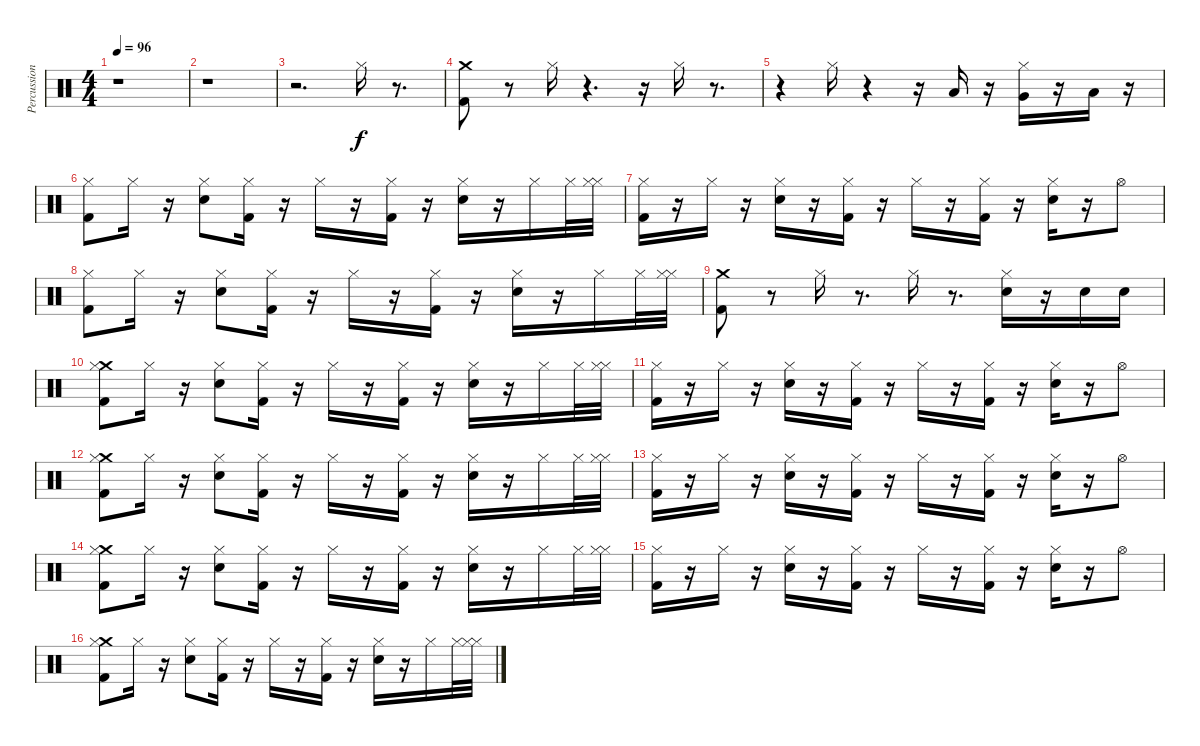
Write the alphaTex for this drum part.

\track ("Percussions" "Percussion") {instrument percussion}
\staff {score}
\articulation defaults
\ts (4 4)
\tempo 96
\clef neutral
\ks c
r.1{dy f} |
r.1 |
r.2{d} "Hi-Hat (closed)".16 r.8{d} |
("Kick (hit) 2" "Crash medium (hit)").8 r.8 "Hi-Hat (closed)".16 r.4{d} r.16 "Hi-Hat (closed)".16 r.8{d} |
r.4 "Hi-Hat (closed)".16 r.4 r.16 "Low Tom (hit)".16 r.16 ("Hi-Hat (closed)" "Very Low Tom (hit)").16 r.16 "Low Floor Tom (hit)".16 r.16 |
("Kick (hit) 2" "Hi-Hat (closed)").8 "Hi-Hat (closed)".16 r.16 ("Snare (hit) 2" "Hi-Hat (closed)").8 ("Kick (hit) 2" "Hi-Hat (closed)").16 r.16 "Hi-Hat (closed)".16 r.16 ("Kick (hit) 2" "Hi-Hat (closed)").16 r.16 ("Snare (hit) 2" "Hi-Hat (closed)").16 r.16 "Hi-Hat (closed)".16 "Hi-Hat (closed)".32 ("Hi-Hat (closed)" "Hi-Hat (closed)").32 |
("Hi-Hat (closed)" "Kick (hit) 2").16 r.16 "Hi-Hat (closed)".16 r.16 ("Hi-Hat (closed)" "Snare (hit) 2").16 r.16 ("Hi-Hat (closed)" "Kick (hit) 2").16 r.16 "Hi-Hat (closed)".16 r.16 ("Hi-Hat (closed)" "Kick (hit) 2").16 r.16 ("Hi-Hat (closed)" "Snare (hit) 2").16 r.16 "Hi-Hat (open)".8 |
("Kick (hit) 2" "Hi-Hat (closed)").8 "Hi-Hat (closed)".16 r.16 ("Snare (hit) 2" "Hi-Hat (closed)").8 ("Kick (hit) 2" "Hi-Hat (closed)").16 r.16 "Hi-Hat (closed)".16 r.16 ("Kick (hit) 2" "Hi-Hat (closed)").16 r.16 ("Snare (hit) 2" "Hi-Hat (closed)").16 r.16 "Hi-Hat (closed)".16 "Hi-Hat (closed)".32 ("Hi-Hat (closed)" "Hi-Hat (closed)").32 |
("Crash medium (hit)" "Kick (hit) 2").8 r.8 "Hi-Hat (closed)".16 r.8{d} "Hi-Hat (closed)".16 r.8{d} ("Hi-Hat (closed)" "Snare (hit) 2").16 r.16 "Snare (hit) 2".16 "Snare (hit) 2".16 |
("Crash medium (hit)" "Kick (hit) 2" "Hi-Hat (closed)").8 "Hi-Hat (closed)".16 r.16 ("Snare (hit) 2" "Hi-Hat (closed)").8 ("Kick (hit) 2" "Hi-Hat (closed)").16 r.16 "Hi-Hat (closed)".16 r.16 ("Kick (hit) 2" "Hi-Hat (closed)").16 r.16 ("Snare (hit) 2" "Hi-Hat (closed)").16 r.16 "Hi-Hat (closed)".16 "Hi-Hat (closed)".32 ("Hi-Hat (closed)" "Hi-Hat (closed)").32 |
("Hi-Hat (closed)" "Kick (hit) 2").16 r.16 "Hi-Hat (closed)".16 r.16 ("Hi-Hat (closed)" "Snare (hit) 2").16 r.16 ("Hi-Hat (closed)" "Kick (hit) 2").16 r.16 "Hi-Hat (closed)".16 r.16 ("Hi-Hat (closed)" "Kick (hit) 2").16 r.16 ("Hi-Hat (closed)" "Snare (hit) 2").16 r.16 "Hi-Hat (open)".8 |
("Crash medium (hit)" "Kick (hit) 2" "Hi-Hat (closed)").8 "Hi-Hat (closed)".16 r.16 ("Snare (hit) 2" "Hi-Hat (closed)").8 ("Kick (hit) 2" "Hi-Hat (closed)").16 r.16 "Hi-Hat (closed)".16 r.16 ("Kick (hit) 2" "Hi-Hat (closed)").16 r.16 ("Snare (hit) 2" "Hi-Hat (closed)").16 r.16 "Hi-Hat (closed)".16 "Hi-Hat (closed)".32 ("Hi-Hat (closed)" "Hi-Hat (closed)").32 |
("Hi-Hat (closed)" "Kick (hit) 2").16 r.16 "Hi-Hat (closed)".16 r.16 ("Hi-Hat (closed)" "Snare (hit) 2").16 r.16 ("Hi-Hat (closed)" "Kick (hit) 2").16 r.16 "Hi-Hat (closed)".16 r.16 ("Hi-Hat (closed)" "Kick (hit) 2").16 r.16 ("Hi-Hat (closed)" "Snare (hit) 2").16 r.16 "Hi-Hat (open)".8 |
("Crash medium (hit)" "Kick (hit) 2" "Hi-Hat (closed)").8 "Hi-Hat (closed)".16 r.16 ("Snare (hit) 2" "Hi-Hat (closed)").8 ("Kick (hit) 2" "Hi-Hat (closed)").16 r.16 "Hi-Hat (closed)".16 r.16 ("Kick (hit) 2" "Hi-Hat (closed)").16 r.16 ("Snare (hit) 2" "Hi-Hat (closed)").16 r.16 "Hi-Hat (closed)".16 "Hi-Hat (closed)".32 ("Hi-Hat (closed)" "Hi-Hat (closed)").32 |
("Hi-Hat (closed)" "Kick (hit) 2").16 r.16 "Hi-Hat (closed)".16 r.16 ("Hi-Hat (closed)" "Snare (hit) 2").16 r.16 ("Hi-Hat (closed)" "Kick (hit) 2").16 r.16 "Hi-Hat (closed)".16 r.16 ("Hi-Hat (closed)" "Kick (hit) 2").16 r.16 ("Hi-Hat (closed)" "Snare (hit) 2").16 r.16 "Hi-Hat (open)".8 |
("Crash medium (hit)" "Kick (hit) 2" "Hi-Hat (closed)").8 "Hi-Hat (closed)".16 r.16 ("Snare (hit) 2" "Hi-Hat (closed)").8 ("Kick (hit) 2" "Hi-Hat (closed)").16 r.16 "Hi-Hat (closed)".16 r.16 ("Kick (hit) 2" "Hi-Hat (closed)").16 r.16 ("Snare (hit) 2" "Hi-Hat (closed)").16 r.16 "Hi-Hat (closed)".16 "Hi-Hat (closed)".32 ("Hi-Hat (closed)" "Hi-Hat (closed)").32
